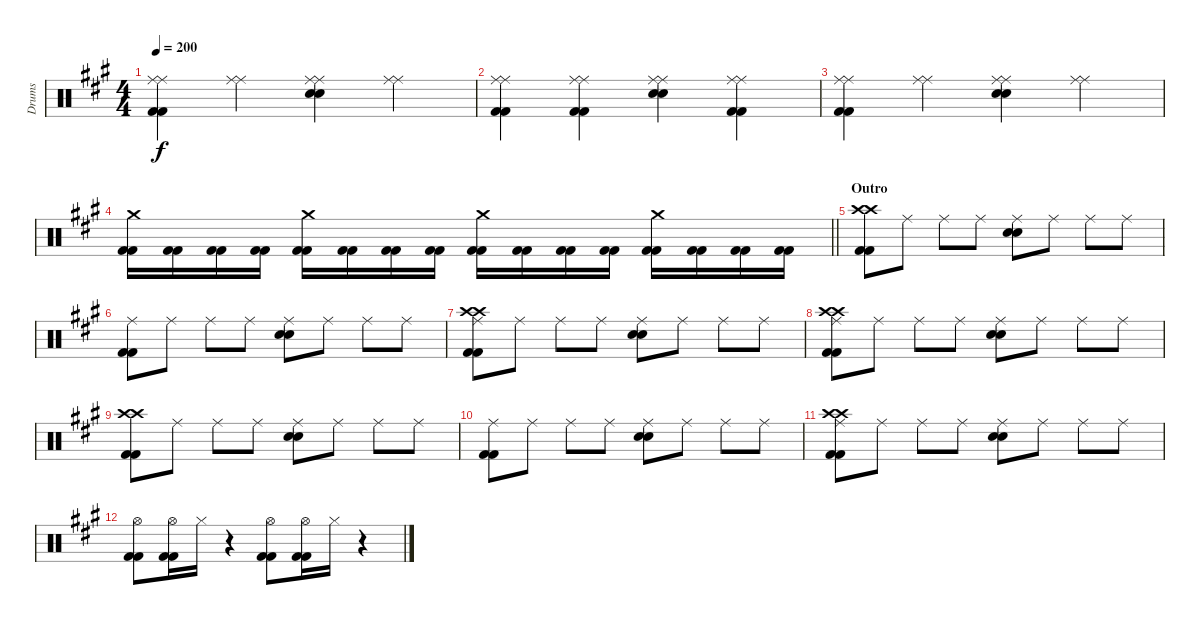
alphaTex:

\track ("Drums" "Drums") {instrument percussion}
\staff {score}
\articulation defaults
\ts (4 4)
\tempo 200
\clef neutral
\ks f#minor
("Ride (middle)" "Ride (middle)" "Kick (hit) 2" "Kick (hit) 2").4{dy f} ("Ride (middle)" "Ride (middle)").4 ("Ride (middle)" "Ride (middle)" "Snare (hit) 2" "Snare (hit) 2").4 ("Ride (middle)" "Ride (middle)").4 |
("Ride (middle)" "Ride (middle)" "Kick (hit) 2" "Kick (hit) 2").4 ("Ride (middle)" "Ride (middle)" "Kick (hit) 2" "Kick (hit) 2").4 ("Ride (middle)" "Ride (middle)" "Snare (hit) 2" "Snare (hit) 2").4 ("Ride (middle)" "Ride (middle)" "Kick (hit) 2" "Kick (hit) 2").4 |
("Ride (middle)" "Ride (middle)" "Kick (hit) 2" "Kick (hit) 2").4 ("Ride (middle)" "Ride (middle)").4 ("Ride (middle)" "Ride (middle)" "Snare (hit) 2" "Snare (hit) 2").4 ("Ride (middle)" "Ride (middle)").4 |
\barLineRight lightlight
("Crash medium (hit)" "Kick (hit) 2" "Kick (hit) 2").16 ("Kick (hit) 2" "Kick (hit) 2").16 ("Kick (hit) 2" "Kick (hit) 2").16 ("Kick (hit) 2" "Kick (hit) 2").16 ("Crash medium (hit)" "Kick (hit) 2" "Kick (hit) 2").16 ("Kick (hit) 2" "Kick (hit) 2").16 ("Kick (hit) 2" "Kick (hit) 2").16 ("Kick (hit) 2" "Kick (hit) 2").16 ("Crash medium (hit)" "Kick (hit) 2" "Kick (hit) 2").16 ("Kick (hit) 2" "Kick (hit) 2").16 ("Kick (hit) 2" "Kick (hit) 2").16 ("Kick (hit) 2" "Kick (hit) 2").16 ("Crash medium (hit)" "Kick (hit) 2" "Kick (hit) 2").16 ("Kick (hit) 2" "Kick (hit) 2").16 ("Kick (hit) 2" "Kick (hit) 2").16 ("Kick (hit) 2" "Kick (hit) 2").16 |
\section ("" "Outro")
("Crash high (hit)" "Crash high (hit)" "Kick (hit) 2" "Kick (hit) 2").8 "Ride (middle)".8 "Ride (middle)".8 "Ride (middle)".8 ("Ride (middle)" "Snare (hit) 2" "Snare (hit) 2").8 "Ride (middle)".8 "Ride (middle)".8 "Ride (middle)".8 |
("Ride (middle)" "Kick (hit) 2" "Kick (hit) 2").8 "Ride (middle)".8 "Ride (middle)".8 "Ride (middle)".8 ("Ride (middle)" "Snare (hit) 2" "Snare (hit) 2").8 "Ride (middle)".8 "Ride (middle)".8 "Ride (middle)".8 |
("Crash high (hit)" "Crash high (hit)" "Ride (middle)" "Kick (hit) 2" "Kick (hit) 2").8 "Ride (middle)".8 "Ride (middle)".8 "Ride (middle)".8 ("Ride (middle)" "Snare (hit) 2" "Snare (hit) 2").8 "Ride (middle)".8 "Ride (middle)".8 "Ride (middle)".8 |
("Crash high (hit)" "Crash high (hit)" "Ride (middle)" "Kick (hit) 2" "Kick (hit) 2").8 "Ride (middle)".8 "Ride (middle)".8 "Ride (middle)".8 ("Ride (middle)" "Snare (hit) 2" "Snare (hit) 2").8 "Ride (middle)".8 "Ride (middle)".8 "Ride (middle)".8 |
("Crash high (hit)" "Crash high (hit)" "Kick (hit) 2" "Kick (hit) 2").8 "Ride (middle)".8 "Ride (middle)".8 "Ride (middle)".8 ("Ride (middle)" "Snare (hit) 2" "Snare (hit) 2").8 "Ride (middle)".8 "Ride (middle)".8 "Ride (middle)".8 |
("Ride (middle)" "Kick (hit) 2" "Kick (hit) 2").8 "Ride (middle)".8 "Ride (middle)".8 "Ride (middle)".8 ("Ride (middle)" "Snare (hit) 2" "Snare (hit) 2").8 "Ride (middle)".8 "Ride (middle)".8 "Ride (middle)".8 |
("Crash high (hit)" "Crash high (hit)" "Ride (middle)" "Kick (hit) 2" "Kick (hit) 2").8 "Ride (middle)".8 "Ride (middle)".8 "Ride (middle)".8 ("Ride (middle)" "Snare (hit) 2" "Snare (hit) 2").8 "Ride (middle)".8 "Ride (middle)".8 "Ride (middle)".8 |
("Hi-Hat (open)" "Kick (hit) 2" "Kick (hit) 2").8 ("Hi-Hat (open)" "Kick (hit) 2" "Kick (hit) 2").16 "Hi-Hat (closed)".16 r.4 ("Hi-Hat (open)" "Kick (hit) 2" "Kick (hit) 2").8 ("Hi-Hat (open)" "Kick (hit) 2" "Kick (hit) 2").16 "Hi-Hat (closed)".16 r.4
